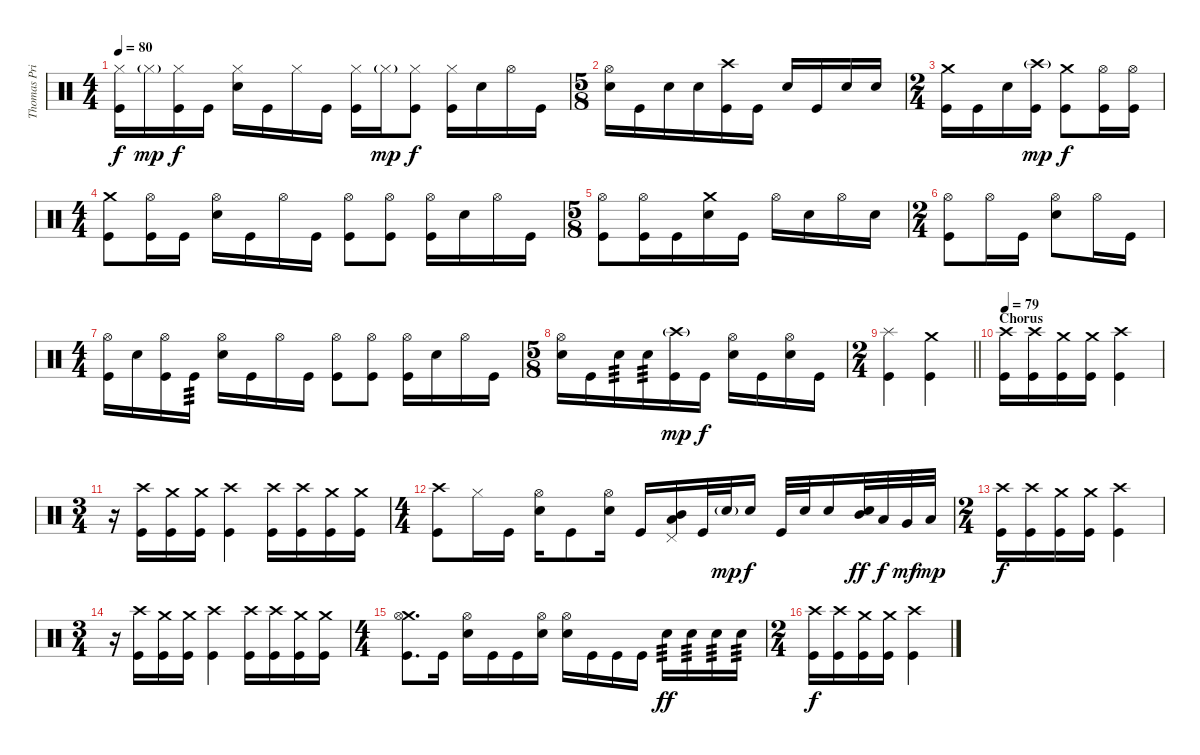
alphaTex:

\track ("Thomas Pridgen" "Thomas Pri") {instrument percussion}
\staff {score}
\articulation defaults
\ts (4 4)
\tempo 80
\clef neutral
\ks c
("Hi-Hat (closed)" "Kick (hit)").16{dy f} "Hi-Hat (closed)"{g}.16{dy mp} ("Hi-Hat (closed)" "Kick (hit)").16{dy f} "Kick (hit)".16 ("Hi-Hat (closed)" "Snare (hit) 2").16 "Kick (hit)".16 "Hi-Hat (closed)".16 "Kick (hit)".16 ("Hi-Hat (closed)" "Kick (hit)").16 "Hi-Hat (closed)"{g}.16{dy mp} ("Hi-Hat (closed)" "Kick (hit)").8{dy f} ("Hi-Hat (closed)" "Kick (hit)").16 "Snare (hit) 2".16 "Hi-Hat (open)".16 "Kick (hit)".16 |
\ts (5 8)
("Hi-Hat (open)" "Snare (hit) 2").16 "Kick (hit)".16 "Snare (hit) 2".16 "Snare (hit) 2".16 ("Crash high (hit)" "Kick (hit)").16 "Kick (hit)".16 "Snare (hit) 2".16 "Kick (hit)".16 "Snare (hit) 2".16 "Snare (hit) 2".16 |
\ts (2 4)
("Crash medium (hit)" "Kick (hit)").16 "Kick (hit)".16 "Snare (hit) 2".16 ("Crash high (hit)"{g} "Kick (hit)").16{dy mp} ("Crash medium (hit)" "Kick (hit)").8{dy f} ("Hi-Hat (open)" "Kick (hit)").16 ("Hi-Hat (open)" "Kick (hit)").16 |
\ts (4 4)
("Crash medium (hit)" "Kick (hit)").8 ("Hi-Hat (open)" "Kick (hit)").16 "Kick (hit)".16 ("Hi-Hat (open)" "Snare (hit) 2").16 "Kick (hit)".16 "Hi-Hat (open)".16 "Kick (hit)".16 ("Hi-Hat (open)" "Kick (hit)").8 ("Hi-Hat (open)" "Kick (hit)").8 ("Hi-Hat (open)" "Kick (hit)").16 "Snare (hit) 2".16 "Hi-Hat (open)".16 "Kick (hit)".16 |
\ts (5 8)
("Hi-Hat (open)" "Kick (hit)").8 ("Hi-Hat (open)" "Kick (hit)").16 "Kick (hit)".16 ("Crash medium (hit)" "Snare (hit) 2").16 "Kick (hit)".16 "Hi-Hat (open)".16 "Snare (hit) 2".16 "Hi-Hat (open)".16 "Snare (hit) 2".16 |
\ts (2 4)
("Hi-Hat (open)" "Kick (hit)").8 "Hi-Hat (open)".16 "Kick (hit)".16 ("Hi-Hat (open)" "Snare (hit) 2").8 "Hi-Hat (open)".16 "Kick (hit)".16 |
\ts (4 4)
("Hi-Hat (open)" "Kick (hit)").16 "Snare (hit) 2".16 ("Hi-Hat (open)" "Kick (hit)").16 "Kick (hit)".16{tp 3} ("Hi-Hat (open)" "Snare (hit) 2").16 "Kick (hit)".16 "Hi-Hat (open)".16 "Kick (hit)".16 ("Hi-Hat (open)" "Kick (hit)").8 ("Hi-Hat (open)" "Kick (hit)").8 ("Hi-Hat (open)" "Kick (hit)").16 "Snare (hit) 2".16 "Hi-Hat (open)".16 "Kick (hit)".16 |
\ts (5 8)
("Hi-Hat (open)" "Snare (hit) 2").16 "Kick (hit)".16 "Snare (hit) 2".16{tp 3} "Snare (hit) 2".16{tp 3} ("Crash high (hit)"{g} "Kick (hit)").16{dy mp} "Kick (hit)".16{dy f} ("Hi-Hat (open)" "Snare (hit) 2").16 "Kick (hit)".16 ("Hi-Hat (open)" "Snare (hit) 2").16 "Kick (hit)".16 |
\ts (2 4)
\barLineRight lightlight
("Splash (hit)" "Kick (hit)").4 ("Crash medium (hit)" "Kick (hit)").4 |
\section ("" "Chorus")
\tempo 79
("Crash high (hit)" "Kick (hit)").16 ("Crash high (hit)" "Kick (hit)").16 ("Crash medium (hit)" "Kick (hit)").16 ("Crash medium (hit)" "Kick (hit)").16 ("Crash high (hit)" "Kick (hit)").4 |
\ts (3 4)
r.16 ("Crash high (hit)" "Kick (hit)").16 ("Crash medium (hit)" "Kick (hit)").16 ("Crash medium (hit)" "Kick (hit)").16 ("Crash high (hit)" "Kick (hit)").4 ("Crash high (hit)" "Kick (hit)").16 ("Crash high (hit)" "Kick (hit)").16 ("Crash medium (hit)" "Kick (hit)").16 ("Crash medium (hit)" "Kick (hit)").16 |
\ts (4 4)
("Crash high (hit)" "Kick (hit)").8 "Hi-Hat (closed)".16 "Kick (hit)".16 ("Hi-Hat (open)" "Snare (hit) 2").16 "Kick (hit)".8 ("Hi-Hat (open)" "Snare (hit) 2").16 "Kick (hit)".16 ("Pedal Hi-Hat (hit)" "Mid Tom (hit)" "Low Tom (hit)").16 "Kick (hit)".32 "Snare (hit) 2"{g}.32{dy mp} "Snare (hit) 2".16{dy f} "Kick (hit)".32 "Snare (hit) 2".32 "Snare (hit) 2".16 ("Mid Tom (hit)" "Snare (hit) 2").32{dy ff} "Low Tom (hit)".32{dy f} "Very Low Tom (hit)".32{dy mf} "Low Floor Tom (hit)".32{dy mp} |
\ts (2 4)
("Crash high (hit)" "Kick (hit)").16{dy f} ("Crash high (hit)" "Kick (hit)").16 ("Crash medium (hit)" "Kick (hit)").16 ("Crash medium (hit)" "Kick (hit)").16 ("Crash high (hit)" "Kick (hit)").4 |
\ts (3 4)
r.16 ("Crash high (hit)" "Kick (hit)").16 ("Crash medium (hit)" "Kick (hit)").16 ("Crash medium (hit)" "Kick (hit)").16 ("Crash high (hit)" "Kick (hit)").4 ("Crash high (hit)" "Kick (hit)").16 ("Crash high (hit)" "Kick (hit)").16 ("Crash medium (hit)" "Kick (hit)").16 ("Crash medium (hit)" "Kick (hit)").16 |
\ts (4 4)
("Crash medium (hit)" "Hi-Hat (open)" "Kick (hit)").8{d} "Kick (hit)".16 ("Hi-Hat (open)" "Snare (hit) 2").16 "Kick (hit)".16 "Kick (hit)".16 ("Hi-Hat (open)" "Snare (hit) 2").16 ("Hi-Hat (open)" "Snare (hit) 2").16 "Kick (hit)".16 "Kick (hit)".16 "Kick (hit)".16 "Snare (hit) 2".16{tp 3 dy ff} "Snare (hit) 2".16{tp 3} "Snare (hit) 2".16{tp 3} "Snare (hit) 2".16{tp 3} |
\ts (2 4)
("Crash high (hit)" "Kick (hit)").16{dy f} ("Crash high (hit)" "Kick (hit)").16 ("Crash medium (hit)" "Kick (hit)").16 ("Crash medium (hit)" "Kick (hit)").16 ("Crash high (hit)" "Kick (hit)").4
